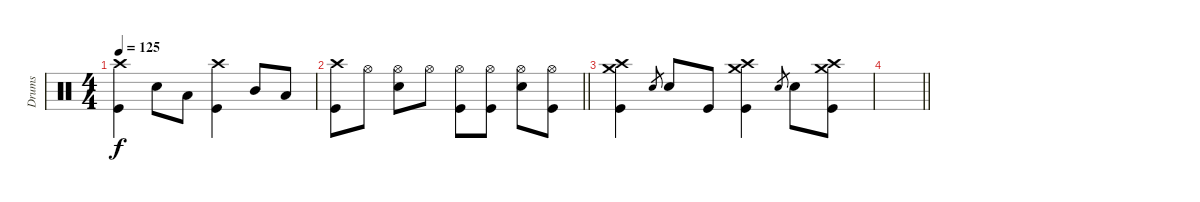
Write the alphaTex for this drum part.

\track ("Drums" "Drums") {instrument percussion}
\staff {score}
\articulation defaults
\ts (4 4)
\tempo 125
\clef neutral
\ks c
("Crash high (hit)" "Kick (hit)").4{dy f} "Electric Snare (hit)".8 "Low Tom (hit)".8 ("Crash high (hit)" "Kick (hit)").4 "Mid Tom (hit)".8 "Low Tom (hit)".8 |
\barLineRight lightlight
("Crash high (hit)" "Kick (hit)").8 "Hi-Hat (open)".8 ("Hi-Hat (open)" "Electric Snare (hit)").8 "Hi-Hat (open)".8 ("Hi-Hat (open)" "Kick (hit)").8 ("Hi-Hat (open)" "Kick (hit)").8 ("Hi-Hat (open)" "Electric Snare (hit)").8 ("Hi-Hat (open)" "Kick (hit)").8 |
("Crash medium (hit)" "Crash high (hit)" "Kick (hit)").4 "Electric Snare (hit)".8{gr} "Electric Snare (hit)".8 "Kick (hit)".8 ("Crash medium (hit)" "Crash high (hit)" "Kick (hit)").4 "Electric Snare (hit)".8{gr} "Electric Snare (hit)".8 ("Crash high (hit)" "Crash medium (hit)" "Kick (hit)").8 |
\barLineRight lightlight
